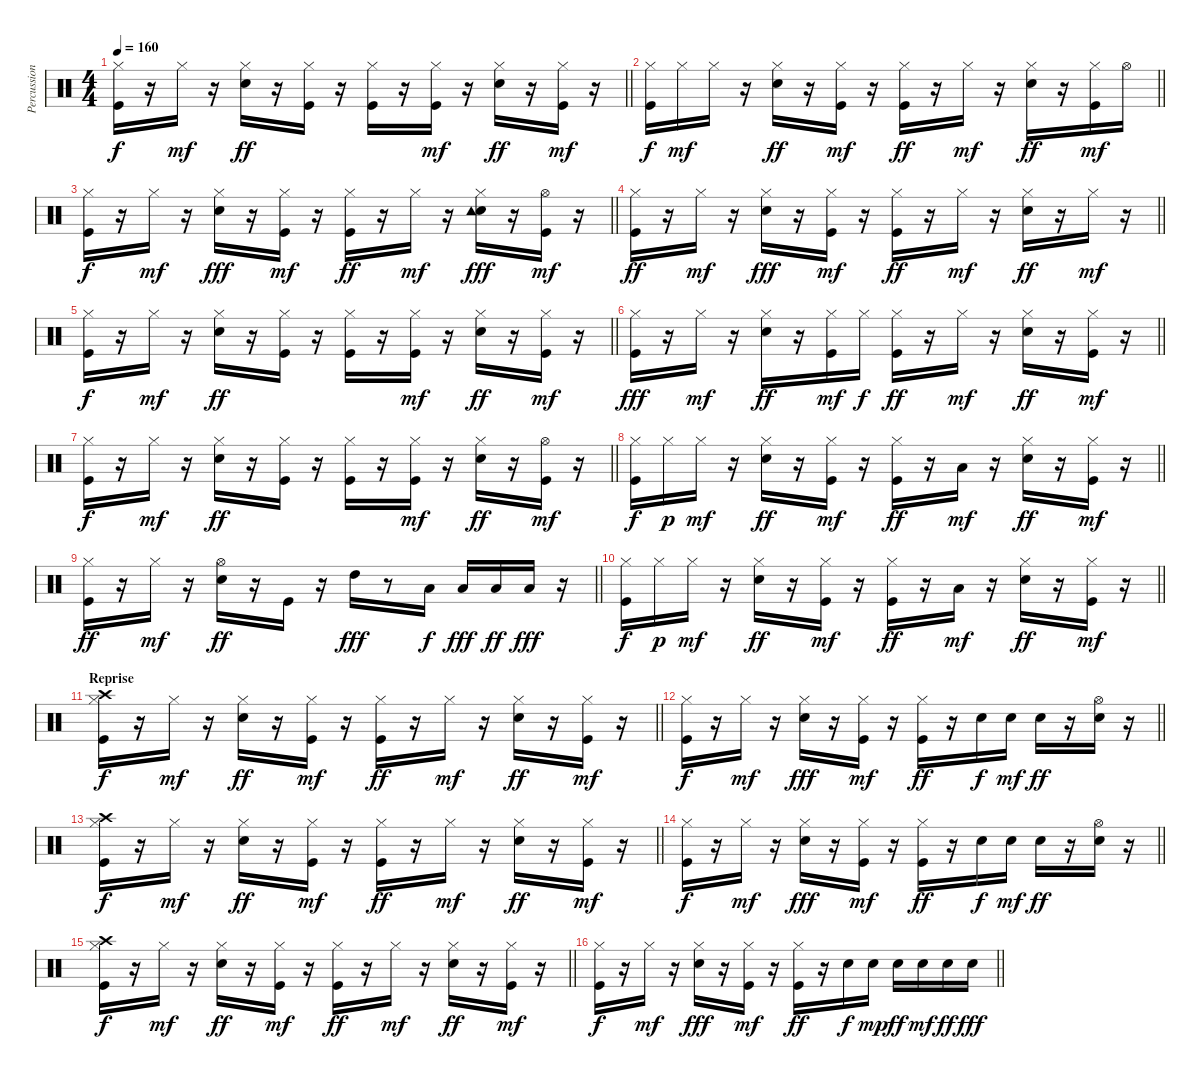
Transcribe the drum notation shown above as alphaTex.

\track ("Percussions" "Percussion") {instrument percussion}
\staff {score}
\articulation defaults
\ts (4 4)
\tempo 160
\clef neutral
\barLineRight lightlight
\ks c
("Kick (hit)" "Hi-Hat (closed)").16{dy f} r.16 "Hi-Hat (closed)".16{dy mf} r.16 ("Snare (hit) 2" "Hi-Hat (closed)").16{dy ff} r.16 ("Kick (hit)" "Hi-Hat (closed)").16 r.16 ("Kick (hit)" "Hi-Hat (closed)").16 r.16 ("Kick (hit)" "Hi-Hat (closed)").16{dy mf} r.16 ("Snare (hit) 2" "Hi-Hat (closed)").16{dy ff} r.16 ("Kick (hit)" "Hi-Hat (closed)").16{dy mf} r.16 |
\barLineRight lightlight
("Kick (hit)" "Hi-Hat (closed)").16{dy f} "Hi-Hat (closed)".16{dy mf} "Hi-Hat (closed)".16 r.16 ("Snare (hit) 2" "Hi-Hat (closed)").16{dy ff} r.16 ("Kick (hit)" "Hi-Hat (closed)").16{dy mf} r.16 ("Kick (hit)" "Hi-Hat (closed)").16{dy ff} r.16 "Hi-Hat (closed)".16{dy mf} r.16 ("Snare (hit) 2" "Hi-Hat (closed)").16{dy ff} r.16 ("Kick (hit)" "Hi-Hat (closed)").16{dy mf} "Hi-Hat (open)".16 |
\barLineRight lightlight
("Kick (hit)" "Hi-Hat (closed)").16{dy f} r.16 "Hi-Hat (closed)".16{dy mf} r.16 ("Snare (hit) 2" "Hi-Hat (closed)").16{dy fff} r.16 ("Kick (hit)" "Hi-Hat (closed)").16{dy mf} r.16 ("Kick (hit)" "Hi-Hat (closed)").16{dy ff} r.16 "Hi-Hat (closed)".16{dy mf} r.16 ("Snare (hit) 2" "Hi-Hat (closed)" "Tambourine (hit)").16{dy fff} r.16 ("Kick (hit)" "Hi-Hat (open)").16{dy mf} r.16 |
\barLineRight lightlight
("Kick (hit)" "Hi-Hat (closed)").16{dy ff} r.16 "Hi-Hat (closed)".16{dy mf} r.16 ("Snare (hit) 2" "Hi-Hat (closed)").16{dy fff} r.16 ("Kick (hit)" "Hi-Hat (closed)").16{dy mf} r.16 ("Kick (hit)" "Hi-Hat (closed)").16{dy ff} r.16 "Hi-Hat (closed)".16{dy mf} r.16 ("Snare (hit) 2" "Hi-Hat (closed)").16{dy ff} r.16 "Hi-Hat (closed)".16{dy mf} r.16 |
\barLineRight lightlight
("Kick (hit)" "Hi-Hat (closed)").16{dy f} r.16 "Hi-Hat (closed)".16{dy mf} r.16 ("Snare (hit) 2" "Hi-Hat (closed)").16{dy ff} r.16 ("Kick (hit)" "Hi-Hat (closed)").16 r.16 ("Kick (hit)" "Hi-Hat (closed)").16 r.16 ("Kick (hit)" "Hi-Hat (closed)").16{dy mf} r.16 ("Snare (hit) 2" "Hi-Hat (closed)").16{dy ff} r.16 ("Kick (hit)" "Hi-Hat (closed)").16{dy mf} r.16 |
\barLineRight lightlight
("Kick (hit)" "Hi-Hat (closed)").16{dy fff} r.16 "Hi-Hat (closed)".16{dy mf} r.16 ("Snare (hit) 2" "Hi-Hat (closed)").16{dy ff} r.16 ("Kick (hit)" "Hi-Hat (closed)").16{dy mf} "Hi-Hat (closed)".16{dy f} ("Kick (hit)" "Hi-Hat (closed)").16{dy ff} r.16 "Hi-Hat (closed)".16{dy mf} r.16 ("Snare (hit) 2" "Hi-Hat (closed)").16{dy ff} r.16 ("Kick (hit)" "Hi-Hat (closed)").16{dy mf} r.16 |
\barLineRight lightlight
("Kick (hit)" "Hi-Hat (closed)").16{dy f} r.16 "Hi-Hat (closed)".16{dy mf} r.16 ("Snare (hit) 2" "Hi-Hat (closed)").16{dy ff} r.16 ("Kick (hit)" "Hi-Hat (closed)").16 r.16 ("Kick (hit)" "Hi-Hat (closed)").16 r.16 ("Kick (hit)" "Hi-Hat (closed)").16{dy mf} r.16 ("Snare (hit) 2" "Hi-Hat (closed)").16{dy ff} r.16 ("Kick (hit)" "Hi-Hat (open)").16{dy mf} r.16 |
\barLineRight lightlight
("Kick (hit)" "Hi-Hat (closed)").16{dy f} "Hi-Hat (closed)".16{dy p} "Hi-Hat (closed)".16{dy mf} r.16 ("Snare (hit) 2" "Hi-Hat (closed)").16{dy ff} r.16 ("Kick (hit)" "Hi-Hat (closed)").16{dy mf} r.16 ("Kick (hit)" "Hi-Hat (closed)").16{dy ff} r.16 "Low Floor Tom (hit)".16{dy mf} r.16 ("Snare (hit) 2" "Hi-Hat (closed)").16{dy ff} r.16 ("Kick (hit)" "Hi-Hat (closed)").16{dy mf} r.16 |
\barLineRight lightlight
("Kick (hit)" "Hi-Hat (closed)").16{dy ff} r.16 "Hi-Hat (closed)".16{dy mf} r.16 ("Snare (hit) 2" "Hi-Hat (open)").16{dy ff} r.16 "Kick (hit)".16 r.16 "High Tom (hit)".16{dy fff} r.8 "Low Tom (hit)".16{dy f} "Low Tom (hit)".16{dy fff} "Low Floor Tom (hit)".16{dy ff} "Low Floor Tom (hit)".16{dy fff} r.16 |
\barLineRight lightlight
("Kick (hit)" "Hi-Hat (closed)").16{dy f} "Hi-Hat (closed)".16{dy p} "Hi-Hat (closed)".16{dy mf} r.16 ("Snare (hit) 2" "Hi-Hat (closed)").16{dy ff} r.16 ("Kick (hit)" "Hi-Hat (closed)").16{dy mf} r.16 ("Kick (hit)" "Hi-Hat (closed)").16{dy ff} r.16 "Low Floor Tom (hit)".16{dy mf} r.16 ("Snare (hit) 2" "Hi-Hat (closed)").16{dy ff} r.16 ("Kick (hit)" "Hi-Hat (closed)").16{dy mf} r.16 |
\section ("" "Reprise")
\barLineRight lightlight
("Kick (hit)" "Hi-Hat (closed)" "Crash high (hit)").16{dy f} r.16 "Hi-Hat (closed)".16{dy mf} r.16 ("Snare (hit) 2" "Hi-Hat (closed)").16{dy ff} r.16 ("Kick (hit)" "Hi-Hat (closed)").16{dy mf} r.16 ("Kick (hit)" "Hi-Hat (closed)").16{dy ff} r.16 "Hi-Hat (closed)".16{dy mf} r.16 ("Snare (hit) 2" "Hi-Hat (closed)").16{dy ff} r.16 ("Kick (hit)" "Hi-Hat (closed)").16{dy mf} r.16 |
\barLineRight lightlight
("Kick (hit)" "Hi-Hat (closed)").16{dy f} r.16 "Hi-Hat (closed)".16{dy mf} r.16 ("Snare (hit) 2" "Hi-Hat (closed)").16{dy fff} r.16 ("Kick (hit)" "Hi-Hat (closed)").16{dy mf} r.16 ("Kick (hit)" "Hi-Hat (closed)").16{dy ff} r.16 "Snare (hit) 2".16{dy f} "Snare (hit) 2".16{dy mf} "Snare (hit) 2".16{dy ff} r.16 ("Snare (hit) 2" "Hi-Hat (open)").16 r.16 |
\barLineRight lightlight
("Kick (hit)" "Hi-Hat (closed)" "Crash high (hit)").16{dy f} r.16 "Hi-Hat (closed)".16{dy mf} r.16 ("Snare (hit) 2" "Hi-Hat (closed)").16{dy ff} r.16 ("Kick (hit)" "Hi-Hat (closed)").16{dy mf} r.16 ("Kick (hit)" "Hi-Hat (closed)").16{dy ff} r.16 "Hi-Hat (closed)".16{dy mf} r.16 ("Snare (hit) 2" "Hi-Hat (closed)").16{dy ff} r.16 ("Kick (hit)" "Hi-Hat (closed)").16{dy mf} r.16 |
\barLineRight lightlight
("Kick (hit)" "Hi-Hat (closed)").16{dy f} r.16 "Hi-Hat (closed)".16{dy mf} r.16 ("Snare (hit) 2" "Hi-Hat (closed)").16{dy fff} r.16 ("Kick (hit)" "Hi-Hat (closed)").16{dy mf} r.16 ("Kick (hit)" "Hi-Hat (closed)").16{dy ff} r.16 "Snare (hit) 2".16{dy f} "Snare (hit) 2".16{dy mf} "Snare (hit) 2".16{dy ff} r.16 ("Snare (hit) 2" "Hi-Hat (open)").16 r.16 |
\barLineRight lightlight
("Kick (hit)" "Hi-Hat (closed)" "Crash high (hit)").16{dy f} r.16 "Hi-Hat (closed)".16{dy mf} r.16 ("Snare (hit) 2" "Hi-Hat (closed)").16{dy ff} r.16 ("Kick (hit)" "Hi-Hat (closed)").16{dy mf} r.16 ("Kick (hit)" "Hi-Hat (closed)").16{dy ff} r.16 "Hi-Hat (closed)".16{dy mf} r.16 ("Snare (hit) 2" "Hi-Hat (closed)").16{dy ff} r.16 ("Kick (hit)" "Hi-Hat (closed)").16{dy mf} r.16 |
\barLineRight lightlight
("Kick (hit)" "Hi-Hat (closed)").16{dy f} r.16 "Hi-Hat (closed)".16{dy mf} r.16 ("Snare (hit) 2" "Hi-Hat (closed)").16{dy fff} r.16 ("Kick (hit)" "Hi-Hat (closed)").16{dy mf} r.16 ("Kick (hit)" "Hi-Hat (closed)").16{dy ff} r.16 "Snare (hit) 2".16{dy f} "Snare (hit) 2".16{dy mp} "Snare (hit) 2".16{dy ff} "Snare (hit) 2".16{dy mf} "Snare (hit) 2".16{dy ff} "Snare (hit) 2".16{dy fff}
